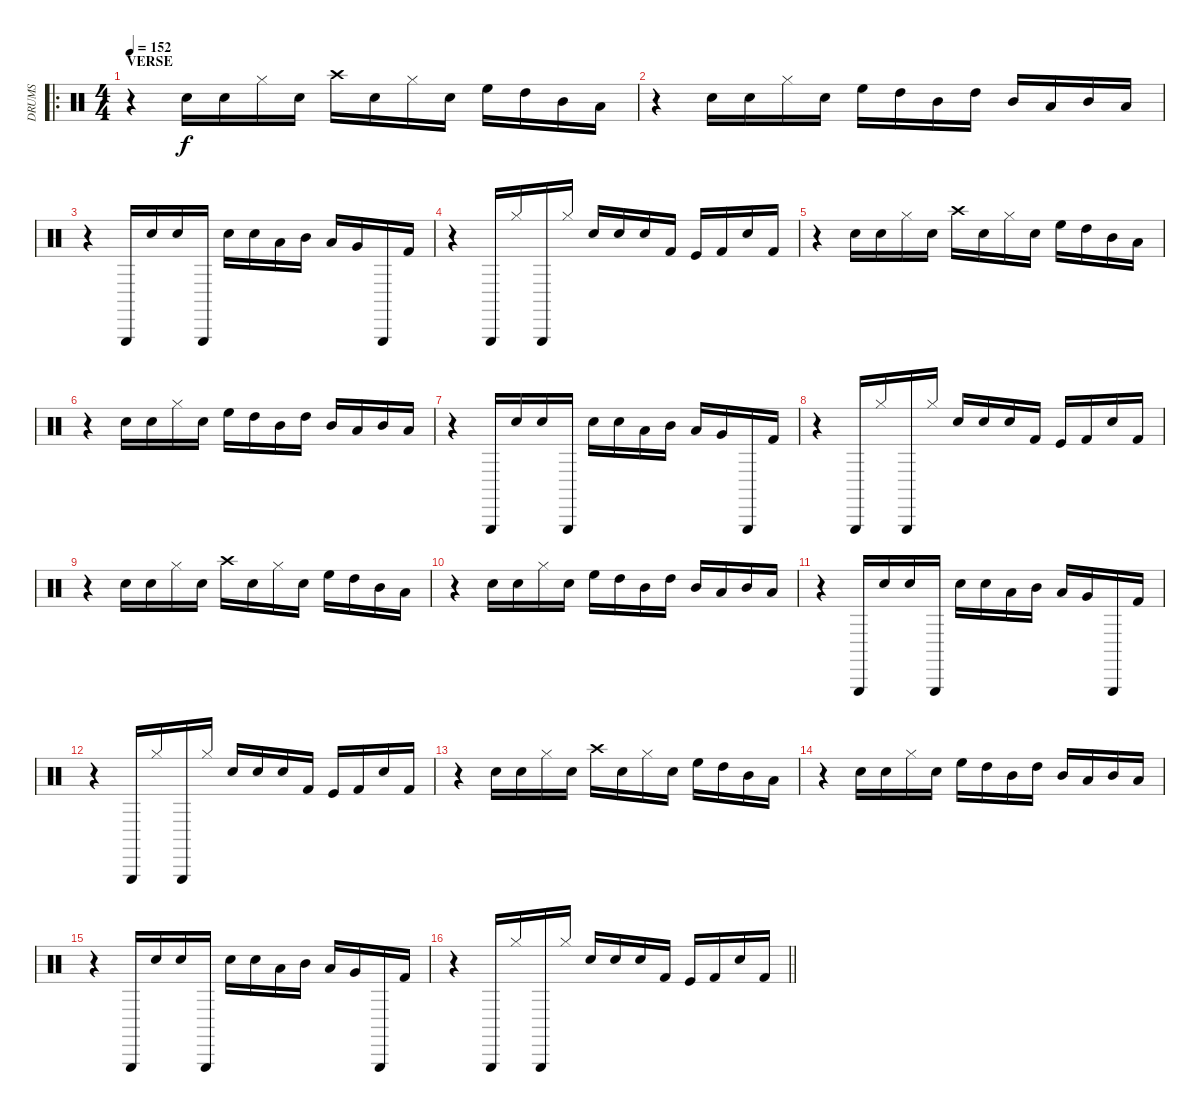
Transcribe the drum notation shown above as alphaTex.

\track ("DRUMS" "DRUMS") {instrument percussion}
\staff {score}
\articulation defaults
\ro
\ts (4 4)
\section ("" "VERSE")
\tempo 152
\clef neutral
\ks c
r.4{dy f} "Electric Snare (hit)".16 "Electric Snare (hit)".16 "Hi-Hat (closed)".16 "Electric Snare (hit)".16 "Crash high (hit)".16 "Electric Snare (hit)".16 "Hi-Hat (closed)".16 "Electric Snare (hit)".16 "High Floor Tom (hit)".16 "High Tom (hit)".16 "Mid Tom (hit)".16 "Low Tom (hit)".16 |
r.4 "Electric Snare (hit)".16 "Electric Snare (hit)".16 "Hi-Hat (closed)".16 "Electric Snare (hit)".16 "High Floor Tom (hit)".16 "High Tom (hit)".16 "Mid Tom (hit)".16 "High Tom (hit)".16 "Mid Tom (hit)".16 "Low Tom (hit)".16 "Mid Tom (hit)".16 "Low Tom (hit)".16 |
r.4 "Triangle (hit)".16 "Electric Snare (hit)".16 "Snare (hit) 2".16 "Triangle (hit)".16 "Electric Snare (hit)".16 "Snare (hit) 2".16 "Low Tom (hit)".16 "Mid Tom (hit)".16 "Low Tom (hit)".16 "Very Low Tom (hit)".16 "Triangle (hit)".16 "Kick (hit) 2".16 |
r.4 "Triangle (hit)".16 "Hi-Hat (closed)".16 "Triangle (hit)".16 "Hi-Hat (closed)".16 "Snare (hit) 2".16 "Electric Snare (hit)".16 "Snare (hit) 2".16 "Kick (hit) 2".16 "Kick (hit)".16 "Kick (hit) 2".16 "Snare (hit) 2".16 "Kick (hit) 2".16 |
r.4 "Electric Snare (hit)".16 "Electric Snare (hit)".16 "Hi-Hat (closed)".16 "Electric Snare (hit)".16 "Crash high (hit)".16 "Electric Snare (hit)".16 "Hi-Hat (closed)".16 "Electric Snare (hit)".16 "High Floor Tom (hit)".16 "High Tom (hit)".16 "Mid Tom (hit)".16 "Low Tom (hit)".16 |
r.4 "Electric Snare (hit)".16 "Electric Snare (hit)".16 "Hi-Hat (closed)".16 "Electric Snare (hit)".16 "High Floor Tom (hit)".16 "High Tom (hit)".16 "Mid Tom (hit)".16 "High Tom (hit)".16 "Mid Tom (hit)".16 "Low Tom (hit)".16 "Mid Tom (hit)".16 "Low Tom (hit)".16 |
r.4 "Triangle (hit)".16 "Electric Snare (hit)".16 "Snare (hit) 2".16 "Triangle (hit)".16 "Electric Snare (hit)".16 "Snare (hit) 2".16 "Low Tom (hit)".16 "Mid Tom (hit)".16 "Low Tom (hit)".16 "Very Low Tom (hit)".16 "Triangle (hit)".16 "Kick (hit) 2".16 |
r.4 "Triangle (hit)".16 "Hi-Hat (closed)".16 "Triangle (hit)".16 "Hi-Hat (closed)".16 "Snare (hit) 2".16 "Electric Snare (hit)".16 "Snare (hit) 2".16 "Kick (hit) 2".16 "Kick (hit)".16 "Kick (hit) 2".16 "Snare (hit) 2".16 "Kick (hit) 2".16 |
r.4 "Electric Snare (hit)".16 "Electric Snare (hit)".16 "Hi-Hat (closed)".16 "Electric Snare (hit)".16 "Crash high (hit)".16 "Electric Snare (hit)".16 "Hi-Hat (closed)".16 "Electric Snare (hit)".16 "High Floor Tom (hit)".16 "High Tom (hit)".16 "Mid Tom (hit)".16 "Low Tom (hit)".16 |
r.4 "Electric Snare (hit)".16 "Electric Snare (hit)".16 "Hi-Hat (closed)".16 "Electric Snare (hit)".16 "High Floor Tom (hit)".16 "High Tom (hit)".16 "Mid Tom (hit)".16 "High Tom (hit)".16 "Mid Tom (hit)".16 "Low Tom (hit)".16 "Mid Tom (hit)".16 "Low Tom (hit)".16 |
r.4 "Triangle (hit)".16 "Electric Snare (hit)".16 "Snare (hit) 2".16 "Triangle (hit)".16 "Electric Snare (hit)".16 "Snare (hit) 2".16 "Low Tom (hit)".16 "Mid Tom (hit)".16 "Low Tom (hit)".16 "Very Low Tom (hit)".16 "Triangle (hit)".16 "Kick (hit) 2".16 |
r.4 "Triangle (hit)".16 "Hi-Hat (closed)".16 "Triangle (hit)".16 "Hi-Hat (closed)".16 "Snare (hit) 2".16 "Electric Snare (hit)".16 "Snare (hit) 2".16 "Kick (hit) 2".16 "Kick (hit)".16 "Kick (hit) 2".16 "Snare (hit) 2".16 "Kick (hit) 2".16 |
r.4 "Electric Snare (hit)".16 "Electric Snare (hit)".16 "Hi-Hat (closed)".16 "Electric Snare (hit)".16 "Crash high (hit)".16 "Electric Snare (hit)".16 "Hi-Hat (closed)".16 "Electric Snare (hit)".16 "High Floor Tom (hit)".16 "High Tom (hit)".16 "Mid Tom (hit)".16 "Low Tom (hit)".16 |
r.4 "Electric Snare (hit)".16 "Electric Snare (hit)".16 "Hi-Hat (closed)".16 "Electric Snare (hit)".16 "High Floor Tom (hit)".16 "High Tom (hit)".16 "Mid Tom (hit)".16 "High Tom (hit)".16 "Mid Tom (hit)".16 "Low Tom (hit)".16 "Mid Tom (hit)".16 "Low Tom (hit)".16 |
r.4 "Triangle (hit)".16 "Electric Snare (hit)".16 "Snare (hit) 2".16 "Triangle (hit)".16 "Electric Snare (hit)".16 "Snare (hit) 2".16 "Low Tom (hit)".16 "Mid Tom (hit)".16 "Low Tom (hit)".16 "Very Low Tom (hit)".16 "Triangle (hit)".16 "Kick (hit) 2".16 |
\barLineRight lightlight
r.4 "Triangle (hit)".16 "Hi-Hat (closed)".16 "Triangle (hit)".16 "Hi-Hat (closed)".16 "Snare (hit) 2".16 "Electric Snare (hit)".16 "Snare (hit) 2".16 "Kick (hit) 2".16 "Kick (hit)".16 "Kick (hit) 2".16 "Snare (hit) 2".16 "Kick (hit) 2".16
